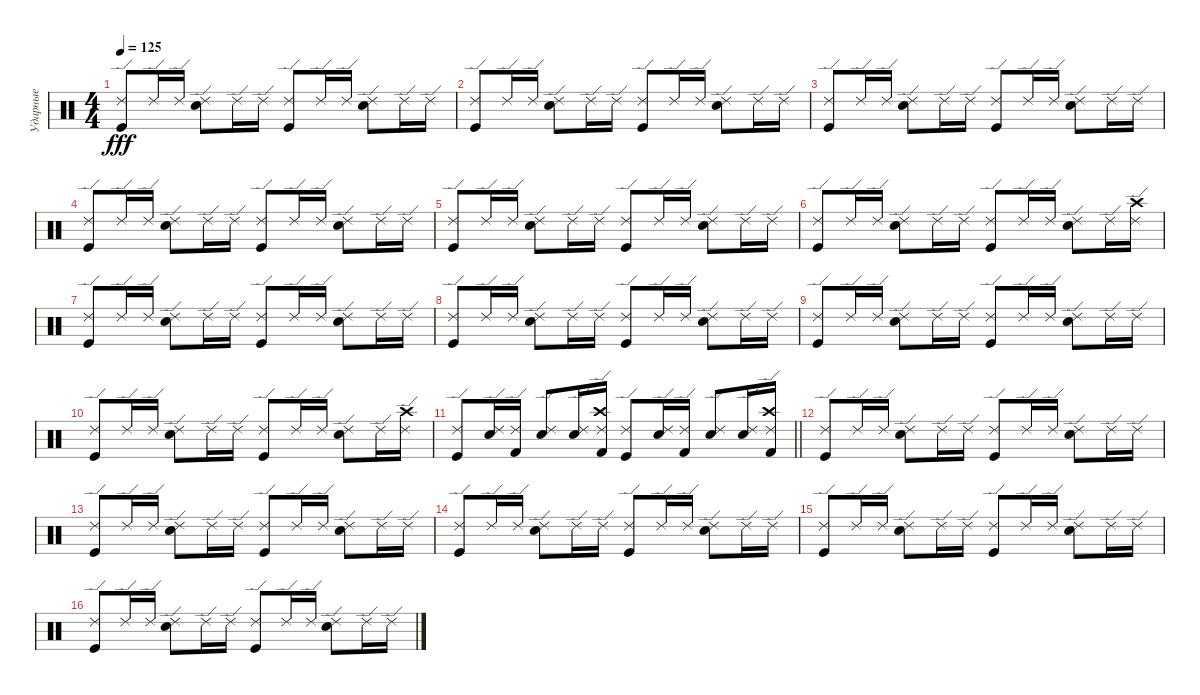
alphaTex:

\track ("Ударные" "Ударные") {instrument percussion}
\staff {score}
\articulation defaults
\ts (4 4)
\tempo 125
\clef neutral
\ks c
("Ride (edge) 2" "Kick (hit)").8{dy fff} "Ride (edge) 2".16 "Ride (edge) 2".16 ("Ride (edge) 2" "Snare (hit) 2").8 "Ride (edge) 2".16 "Ride (edge) 2".16 ("Ride (edge) 2" "Kick (hit)").8 "Ride (edge) 2".16 "Ride (edge) 2".16 ("Ride (edge) 2" "Snare (hit) 2").8 "Ride (edge) 2".16 "Ride (edge) 2".16 |
("Ride (edge) 2" "Kick (hit)").8 "Ride (edge) 2".16 "Ride (edge) 2".16 ("Ride (edge) 2" "Snare (hit) 2").8 "Ride (edge) 2".16 "Ride (edge) 2".16 ("Ride (edge) 2" "Kick (hit)").8 "Ride (edge) 2".16 "Ride (edge) 2".16 ("Ride (edge) 2" "Snare (hit) 2").8 "Ride (edge) 2".16 "Ride (edge) 2".16 |
("Ride (edge) 2" "Kick (hit)").8 "Ride (edge) 2".16 "Ride (edge) 2".16 ("Ride (edge) 2" "Snare (hit) 2").8 "Ride (edge) 2".16 "Ride (edge) 2".16 ("Ride (edge) 2" "Kick (hit)").8 "Ride (edge) 2".16 "Ride (edge) 2".16 ("Ride (edge) 2" "Snare (hit) 2").8 "Ride (edge) 2".16 "Ride (edge) 2".16 |
("Ride (edge) 2" "Kick (hit)").8 "Ride (edge) 2".16 "Ride (edge) 2".16 ("Ride (edge) 2" "Snare (hit) 2").8 "Ride (edge) 2".16 "Ride (edge) 2".16 ("Ride (edge) 2" "Kick (hit)").8 "Ride (edge) 2".16 "Ride (edge) 2".16 ("Ride (edge) 2" "Snare (hit) 2").8 "Ride (edge) 2".16 "Ride (edge) 2".16 |
("Ride (edge) 2" "Kick (hit)").8 "Ride (edge) 2".16 "Ride (edge) 2".16 ("Ride (edge) 2" "Snare (hit) 2").8 "Ride (edge) 2".16 "Ride (edge) 2".16 ("Ride (edge) 2" "Kick (hit)").8 "Ride (edge) 2".16 "Ride (edge) 2".16 ("Ride (edge) 2" "Snare (hit) 2").8 "Ride (edge) 2".16 "Ride (edge) 2".16 |
("Ride (edge) 2" "Kick (hit)").8 "Ride (edge) 2".16 "Ride (edge) 2".16 ("Ride (edge) 2" "Snare (hit) 2").8 "Ride (edge) 2".16 "Ride (edge) 2".16 ("Ride (edge) 2" "Kick (hit)").8 "Ride (edge) 2".16 "Ride (edge) 2".16 ("Ride (edge) 2" "Snare (hit) 2").8 "Ride (edge) 2".16 ("Ride (edge) 2" "Crash high (hit)").16 |
("Ride (edge) 2" "Kick (hit)").8 "Ride (edge) 2".16 "Ride (edge) 2".16 ("Ride (edge) 2" "Snare (hit) 2").8 "Ride (edge) 2".16 "Ride (edge) 2".16 ("Ride (edge) 2" "Kick (hit)").8 "Ride (edge) 2".16 "Ride (edge) 2".16 ("Ride (edge) 2" "Snare (hit) 2").8 "Ride (edge) 2".16 "Ride (edge) 2".16 |
("Ride (edge) 2" "Kick (hit)").8 "Ride (edge) 2".16 "Ride (edge) 2".16 ("Ride (edge) 2" "Snare (hit) 2").8 "Ride (edge) 2".16 "Ride (edge) 2".16 ("Ride (edge) 2" "Kick (hit)").8 "Ride (edge) 2".16 "Ride (edge) 2".16 ("Ride (edge) 2" "Snare (hit) 2").8 "Ride (edge) 2".16 "Ride (edge) 2".16 |
("Ride (edge) 2" "Kick (hit)").8 "Ride (edge) 2".16 "Ride (edge) 2".16 ("Ride (edge) 2" "Snare (hit) 2").8 "Ride (edge) 2".16 "Ride (edge) 2".16 ("Ride (edge) 2" "Kick (hit)").8 "Ride (edge) 2".16 "Ride (edge) 2".16 ("Ride (edge) 2" "Snare (hit) 2").8 "Ride (edge) 2".16 "Ride (edge) 2".16 |
("Ride (edge) 2" "Kick (hit)").8 "Ride (edge) 2".16 "Ride (edge) 2".16 ("Ride (edge) 2" "Snare (hit) 2").8 "Ride (edge) 2".16 "Ride (edge) 2".16 ("Ride (edge) 2" "Kick (hit)").8 "Ride (edge) 2".16 "Ride (edge) 2".16 ("Ride (edge) 2" "Snare (hit) 2").8 "Ride (edge) 2".16 ("Ride (edge) 2" "Crash high (hit)").16 |
\barLineRight lightlight
("Ride (edge) 2" "Kick (hit)").8 ("Ride (edge) 2" "Metronome (bell)").16 ("Ride (edge) 2" "Kick (hit) 2").16 ("Ride (edge) 2" "Snare (hit) 2").8 ("Ride (edge) 2" "Metronome (bell)").16 ("Ride (edge) 2" "Crash high (hit)" "Kick (hit) 2").16 ("Ride (edge) 2" "Kick (hit)").8 ("Ride (edge) 2" "Metronome (bell)").16 ("Ride (edge) 2" "Kick (hit) 2").16 ("Ride (edge) 2" "Snare (hit) 2").8 ("Ride (edge) 2" "Metronome (bell)").16 ("Ride (edge) 2" "Crash high (hit)" "Kick (hit) 2").16 |
("Ride (edge) 2" "Kick (hit)").8 "Ride (edge) 2".16 "Ride (edge) 2".16 ("Ride (edge) 2" "Snare (hit) 2").8 "Ride (edge) 2".16 "Ride (edge) 2".16 ("Ride (edge) 2" "Kick (hit)").8 "Ride (edge) 2".16 "Ride (edge) 2".16 ("Ride (edge) 2" "Snare (hit) 2").8 "Ride (edge) 2".16 "Ride (edge) 2".16 |
("Ride (edge) 2" "Kick (hit)").8 "Ride (edge) 2".16 "Ride (edge) 2".16 ("Ride (edge) 2" "Snare (hit) 2").8 "Ride (edge) 2".16 "Ride (edge) 2".16 ("Ride (edge) 2" "Kick (hit)").8 "Ride (edge) 2".16 "Ride (edge) 2".16 ("Ride (edge) 2" "Snare (hit) 2").8 "Ride (edge) 2".16 "Ride (edge) 2".16 |
("Ride (edge) 2" "Kick (hit)").8 "Ride (edge) 2".16 "Ride (edge) 2".16 ("Ride (edge) 2" "Snare (hit) 2").8 "Ride (edge) 2".16 "Ride (edge) 2".16 ("Ride (edge) 2" "Kick (hit)").8 "Ride (edge) 2".16 "Ride (edge) 2".16 ("Ride (edge) 2" "Snare (hit) 2").8 "Ride (edge) 2".16 "Ride (edge) 2".16 |
("Ride (edge) 2" "Kick (hit)").8 "Ride (edge) 2".16 "Ride (edge) 2".16 ("Ride (edge) 2" "Snare (hit) 2").8 "Ride (edge) 2".16 "Ride (edge) 2".16 ("Ride (edge) 2" "Kick (hit)").8 "Ride (edge) 2".16 "Ride (edge) 2".16 ("Ride (edge) 2" "Snare (hit) 2").8 "Ride (edge) 2".16 "Ride (edge) 2".16 |
("Ride (edge) 2" "Kick (hit)").8 "Ride (edge) 2".16 "Ride (edge) 2".16 ("Ride (edge) 2" "Snare (hit) 2").8 "Ride (edge) 2".16 "Ride (edge) 2".16 ("Ride (edge) 2" "Kick (hit)").8 "Ride (edge) 2".16 "Ride (edge) 2".16 ("Ride (edge) 2" "Snare (hit) 2").8 "Ride (edge) 2".16 "Ride (edge) 2".16
